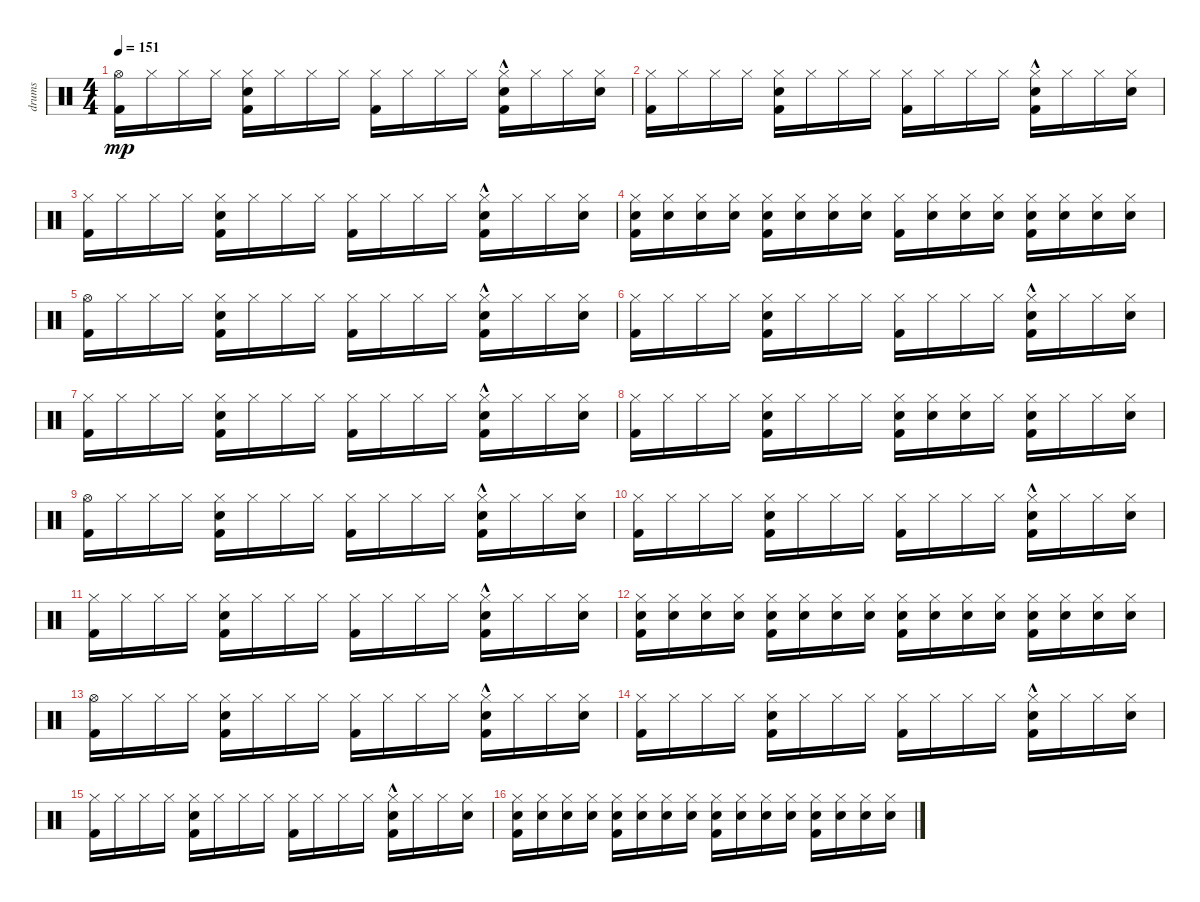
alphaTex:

\track ("drums" "drums") {instrument percussion}
\staff {score}
\articulation defaults
\ts (4 4)
\tempo 151
\clef neutral
\ks c
("Hi-Hat (open)" "Kick (hit) 2").16{dy mp} "Hi-Hat (closed)".16 "Hi-Hat (closed)".16 "Hi-Hat (closed)".16 ("Hi-Hat (closed)" "Kick (hit) 2" "Snare (hit) 2").16 "Hi-Hat (closed)".16 "Hi-Hat (closed)".16 "Hi-Hat (closed)".16 ("Hi-Hat (closed)" "Kick (hit) 2").16 "Hi-Hat (closed)".16 "Hi-Hat (closed)".16 "Hi-Hat (closed)".16 ("Hi-Hat (closed)" "Kick (hit) 2"{hac} "Snare (hit) 2"{hac}).16 "Hi-Hat (closed)".16 "Hi-Hat (closed)".16 ("Hi-Hat (closed)" "Snare (hit) 2").16 |
("Hi-Hat (closed)" "Kick (hit) 2").16 "Hi-Hat (closed)".16 "Hi-Hat (closed)".16 "Hi-Hat (closed)".16 ("Hi-Hat (closed)" "Kick (hit) 2" "Snare (hit) 2").16 "Hi-Hat (closed)".16 "Hi-Hat (closed)".16 "Hi-Hat (closed)".16 ("Hi-Hat (closed)" "Kick (hit) 2").16 "Hi-Hat (closed)".16 "Hi-Hat (closed)".16 "Hi-Hat (closed)".16 ("Hi-Hat (closed)" "Kick (hit) 2"{hac} "Snare (hit) 2"{hac}).16 "Hi-Hat (closed)".16 "Hi-Hat (closed)".16 ("Hi-Hat (closed)" "Snare (hit) 2").16 |
("Hi-Hat (closed)" "Kick (hit) 2").16 "Hi-Hat (closed)".16 "Hi-Hat (closed)".16 "Hi-Hat (closed)".16 ("Hi-Hat (closed)" "Kick (hit) 2" "Snare (hit) 2").16 "Hi-Hat (closed)".16 "Hi-Hat (closed)".16 "Hi-Hat (closed)".16 ("Hi-Hat (closed)" "Kick (hit) 2").16 "Hi-Hat (closed)".16 "Hi-Hat (closed)".16 "Hi-Hat (closed)".16 ("Hi-Hat (closed)" "Kick (hit) 2"{hac} "Snare (hit) 2"{hac}).16 "Hi-Hat (closed)".16 "Hi-Hat (closed)".16 ("Hi-Hat (closed)" "Snare (hit) 2").16 |
("Hi-Hat (closed)" "Kick (hit) 2" "Snare (hit) 2").16 ("Hi-Hat (closed)" "Snare (hit) 2").16 ("Hi-Hat (closed)" "Snare (hit) 2").16 ("Hi-Hat (closed)" "Snare (hit) 2").16 ("Hi-Hat (closed)" "Kick (hit) 2" "Snare (hit) 2").16 ("Hi-Hat (closed)" "Snare (hit) 2").16 ("Hi-Hat (closed)" "Snare (hit) 2").16 ("Hi-Hat (closed)" "Snare (hit) 2").16 ("Hi-Hat (closed)" "Kick (hit) 2").16 ("Hi-Hat (closed)" "Snare (hit) 2").16 ("Hi-Hat (closed)" "Snare (hit) 2").16 ("Hi-Hat (closed)" "Snare (hit) 2").16 ("Hi-Hat (closed)" "Kick (hit) 2" "Snare (hit) 2").16 ("Hi-Hat (closed)" "Snare (hit) 2").16 ("Hi-Hat (closed)" "Snare (hit) 2").16 ("Hi-Hat (closed)" "Snare (hit) 2").16 |
("Hi-Hat (open)" "Kick (hit) 2").16 "Hi-Hat (closed)".16 "Hi-Hat (closed)".16 "Hi-Hat (closed)".16 ("Hi-Hat (closed)" "Kick (hit) 2" "Snare (hit) 2").16 "Hi-Hat (closed)".16 "Hi-Hat (closed)".16 "Hi-Hat (closed)".16 ("Hi-Hat (closed)" "Kick (hit) 2").16 "Hi-Hat (closed)".16 "Hi-Hat (closed)".16 "Hi-Hat (closed)".16 ("Hi-Hat (closed)" "Kick (hit) 2"{hac} "Snare (hit) 2"{hac}).16 "Hi-Hat (closed)".16 "Hi-Hat (closed)".16 ("Hi-Hat (closed)" "Snare (hit) 2").16 |
("Hi-Hat (closed)" "Kick (hit) 2").16 "Hi-Hat (closed)".16 "Hi-Hat (closed)".16 "Hi-Hat (closed)".16 ("Hi-Hat (closed)" "Kick (hit) 2" "Snare (hit) 2").16 "Hi-Hat (closed)".16 "Hi-Hat (closed)".16 "Hi-Hat (closed)".16 ("Hi-Hat (closed)" "Kick (hit) 2").16 "Hi-Hat (closed)".16 "Hi-Hat (closed)".16 "Hi-Hat (closed)".16 ("Hi-Hat (closed)" "Kick (hit) 2"{hac} "Snare (hit) 2"{hac}).16 "Hi-Hat (closed)".16 "Hi-Hat (closed)".16 ("Hi-Hat (closed)" "Snare (hit) 2").16 |
("Hi-Hat (closed)" "Kick (hit) 2").16 "Hi-Hat (closed)".16 "Hi-Hat (closed)".16 "Hi-Hat (closed)".16 ("Hi-Hat (closed)" "Kick (hit) 2" "Snare (hit) 2").16 "Hi-Hat (closed)".16 "Hi-Hat (closed)".16 "Hi-Hat (closed)".16 ("Hi-Hat (closed)" "Kick (hit) 2").16 "Hi-Hat (closed)".16 "Hi-Hat (closed)".16 "Hi-Hat (closed)".16 ("Hi-Hat (closed)" "Kick (hit) 2"{hac} "Snare (hit) 2"{hac}).16 "Hi-Hat (closed)".16 "Hi-Hat (closed)".16 ("Hi-Hat (closed)" "Snare (hit) 2").16 |
("Hi-Hat (closed)" "Kick (hit) 2").16 "Hi-Hat (closed)".16 "Hi-Hat (closed)".16 "Hi-Hat (closed)".16 ("Hi-Hat (closed)" "Kick (hit) 2" "Snare (hit) 2").16 "Hi-Hat (closed)".16 "Hi-Hat (closed)".16 "Hi-Hat (closed)".16 ("Hi-Hat (closed)" "Kick (hit) 2" "Snare (hit) 2").16 ("Hi-Hat (closed)" "Snare (hit) 2").16 ("Hi-Hat (closed)" "Snare (hit) 2").16 "Hi-Hat (closed)".16 ("Hi-Hat (closed)" "Kick (hit) 2" "Snare (hit) 2").16 "Hi-Hat (closed)".16 "Hi-Hat (closed)".16 ("Hi-Hat (closed)" "Snare (hit) 2").16 |
("Hi-Hat (open)" "Kick (hit) 2").16 "Hi-Hat (closed)".16 "Hi-Hat (closed)".16 "Hi-Hat (closed)".16 ("Hi-Hat (closed)" "Kick (hit) 2" "Snare (hit) 2").16 "Hi-Hat (closed)".16 "Hi-Hat (closed)".16 "Hi-Hat (closed)".16 ("Hi-Hat (closed)" "Kick (hit) 2").16 "Hi-Hat (closed)".16 "Hi-Hat (closed)".16 "Hi-Hat (closed)".16 ("Hi-Hat (closed)" "Kick (hit) 2"{hac} "Snare (hit) 2"{hac}).16 "Hi-Hat (closed)".16 "Hi-Hat (closed)".16 ("Hi-Hat (closed)" "Snare (hit) 2").16 |
("Hi-Hat (closed)" "Kick (hit) 2").16 "Hi-Hat (closed)".16 "Hi-Hat (closed)".16 "Hi-Hat (closed)".16 ("Hi-Hat (closed)" "Kick (hit) 2" "Snare (hit) 2").16 "Hi-Hat (closed)".16 "Hi-Hat (closed)".16 "Hi-Hat (closed)".16 ("Hi-Hat (closed)" "Kick (hit) 2").16 "Hi-Hat (closed)".16 "Hi-Hat (closed)".16 "Hi-Hat (closed)".16 ("Hi-Hat (closed)" "Kick (hit) 2"{hac} "Snare (hit) 2"{hac}).16 "Hi-Hat (closed)".16 "Hi-Hat (closed)".16 ("Hi-Hat (closed)" "Snare (hit) 2").16 |
("Hi-Hat (closed)" "Kick (hit) 2").16 "Hi-Hat (closed)".16 "Hi-Hat (closed)".16 "Hi-Hat (closed)".16 ("Hi-Hat (closed)" "Kick (hit) 2" "Snare (hit) 2").16 "Hi-Hat (closed)".16 "Hi-Hat (closed)".16 "Hi-Hat (closed)".16 ("Hi-Hat (closed)" "Kick (hit) 2").16 "Hi-Hat (closed)".16 "Hi-Hat (closed)".16 "Hi-Hat (closed)".16 ("Hi-Hat (closed)" "Kick (hit) 2"{hac} "Snare (hit) 2"{hac}).16 "Hi-Hat (closed)".16 "Hi-Hat (closed)".16 ("Hi-Hat (closed)" "Snare (hit) 2").16 |
("Hi-Hat (closed)" "Kick (hit) 2" "Snare (hit) 2").16 ("Hi-Hat (closed)" "Snare (hit) 2").16 ("Hi-Hat (closed)" "Snare (hit) 2").16 ("Hi-Hat (closed)" "Snare (hit) 2").16 ("Hi-Hat (closed)" "Kick (hit) 2" "Snare (hit) 2").16 ("Hi-Hat (closed)" "Snare (hit) 2").16 ("Hi-Hat (closed)" "Snare (hit) 2").16 ("Hi-Hat (closed)" "Snare (hit) 2").16 ("Hi-Hat (closed)" "Kick (hit) 2" "Snare (hit) 2").16 ("Hi-Hat (closed)" "Snare (hit) 2").16 ("Hi-Hat (closed)" "Snare (hit) 2").16 ("Hi-Hat (closed)" "Snare (hit) 2").16 ("Hi-Hat (closed)" "Kick (hit) 2" "Snare (hit) 2").16 ("Hi-Hat (closed)" "Snare (hit) 2").16 ("Hi-Hat (closed)" "Snare (hit) 2").16 ("Hi-Hat (closed)" "Snare (hit) 2").16 |
("Hi-Hat (open)" "Kick (hit) 2").16 "Hi-Hat (closed)".16 "Hi-Hat (closed)".16 "Hi-Hat (closed)".16 ("Hi-Hat (closed)" "Kick (hit) 2" "Snare (hit) 2").16 "Hi-Hat (closed)".16 "Hi-Hat (closed)".16 "Hi-Hat (closed)".16 ("Hi-Hat (closed)" "Kick (hit) 2").16 "Hi-Hat (closed)".16 "Hi-Hat (closed)".16 "Hi-Hat (closed)".16 ("Hi-Hat (closed)" "Kick (hit) 2"{hac} "Snare (hit) 2"{hac}).16 "Hi-Hat (closed)".16 "Hi-Hat (closed)".16 ("Hi-Hat (closed)" "Snare (hit) 2").16 |
("Hi-Hat (closed)" "Kick (hit) 2").16 "Hi-Hat (closed)".16 "Hi-Hat (closed)".16 "Hi-Hat (closed)".16 ("Hi-Hat (closed)" "Kick (hit) 2" "Snare (hit) 2").16 "Hi-Hat (closed)".16 "Hi-Hat (closed)".16 "Hi-Hat (closed)".16 ("Hi-Hat (closed)" "Kick (hit) 2").16 "Hi-Hat (closed)".16 "Hi-Hat (closed)".16 "Hi-Hat (closed)".16 ("Hi-Hat (closed)" "Kick (hit) 2"{hac} "Snare (hit) 2"{hac}).16 "Hi-Hat (closed)".16 "Hi-Hat (closed)".16 ("Hi-Hat (closed)" "Snare (hit) 2").16 |
("Hi-Hat (closed)" "Kick (hit) 2").16 "Hi-Hat (closed)".16 "Hi-Hat (closed)".16 "Hi-Hat (closed)".16 ("Hi-Hat (closed)" "Kick (hit) 2" "Snare (hit) 2").16 "Hi-Hat (closed)".16 "Hi-Hat (closed)".16 "Hi-Hat (closed)".16 ("Hi-Hat (closed)" "Kick (hit) 2").16 "Hi-Hat (closed)".16 "Hi-Hat (closed)".16 "Hi-Hat (closed)".16 ("Hi-Hat (closed)" "Kick (hit) 2"{hac} "Snare (hit) 2"{hac}).16 "Hi-Hat (closed)".16 "Hi-Hat (closed)".16 ("Hi-Hat (closed)" "Snare (hit) 2").16 |
("Hi-Hat (closed)" "Kick (hit) 2" "Snare (hit) 2").16 ("Hi-Hat (closed)" "Snare (hit) 2").16 ("Hi-Hat (closed)" "Snare (hit) 2").16 ("Hi-Hat (closed)" "Snare (hit) 2").16 ("Hi-Hat (closed)" "Kick (hit) 2" "Snare (hit) 2").16 ("Hi-Hat (closed)" "Snare (hit) 2").16 ("Hi-Hat (closed)" "Snare (hit) 2").16 ("Hi-Hat (closed)" "Snare (hit) 2").16 ("Hi-Hat (closed)" "Kick (hit) 2" "Snare (hit) 2").16 ("Hi-Hat (closed)" "Snare (hit) 2").16 ("Hi-Hat (closed)" "Snare (hit) 2").16 ("Hi-Hat (closed)" "Snare (hit) 2").16 ("Hi-Hat (closed)" "Kick (hit) 2" "Snare (hit) 2").16 ("Hi-Hat (closed)" "Snare (hit) 2").16 ("Hi-Hat (closed)" "Snare (hit) 2").16 ("Hi-Hat (closed)" "Snare (hit) 2").16
